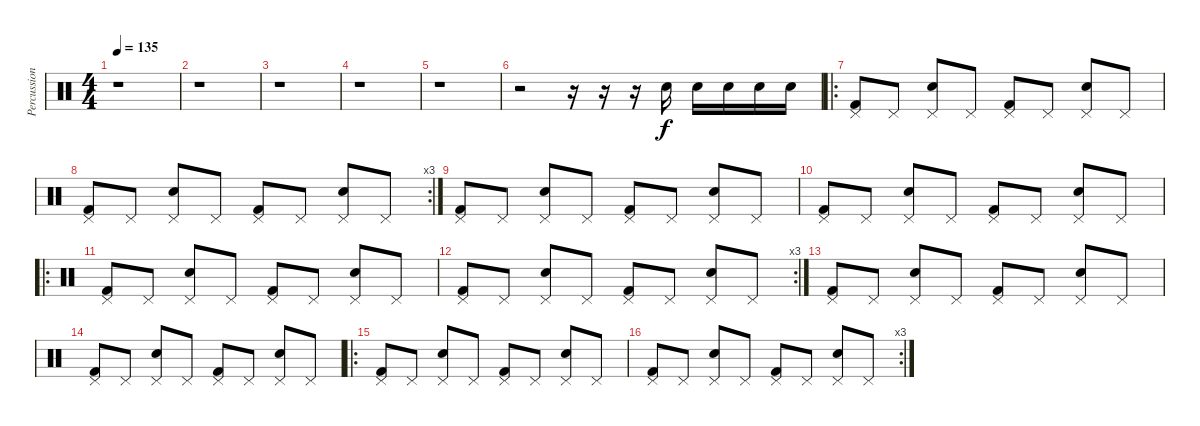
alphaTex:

\track ("Percussions" "Percussion") {instrument percussion}
\staff {score}
\articulation defaults
\ts (4 4)
\tempo 135
\clef neutral
\ks c
r.1{dy f} |
r.1 |
r.1 |
r.1 |
r.1 |
r.2 r.16 r.16 r.16 "Electric Snare (hit)".16 "Electric Snare (hit)".16 "Electric Snare (hit)".16 "Electric Snare (hit)".16 "Electric Snare (hit)".16 |
\ro
("Pedal Hi-Hat (hit)" "Kick (hit) 2").8 "Pedal Hi-Hat (hit)".8 ("Pedal Hi-Hat (hit)" "Electric Snare (hit)").8 "Pedal Hi-Hat (hit)".8 ("Pedal Hi-Hat (hit)" "Kick (hit) 2").8 "Pedal Hi-Hat (hit)".8 ("Pedal Hi-Hat (hit)" "Electric Snare (hit)").8 "Pedal Hi-Hat (hit)".8 |
\rc 3
("Pedal Hi-Hat (hit)" "Kick (hit) 2").8 "Pedal Hi-Hat (hit)".8 ("Pedal Hi-Hat (hit)" "Electric Snare (hit)").8 "Pedal Hi-Hat (hit)".8 ("Pedal Hi-Hat (hit)" "Kick (hit) 2").8 "Pedal Hi-Hat (hit)".8 ("Pedal Hi-Hat (hit)" "Electric Snare (hit)").8 "Pedal Hi-Hat (hit)".8 |
("Pedal Hi-Hat (hit)" "Kick (hit) 2").8 "Pedal Hi-Hat (hit)".8 ("Pedal Hi-Hat (hit)" "Electric Snare (hit)").8 "Pedal Hi-Hat (hit)".8 ("Pedal Hi-Hat (hit)" "Kick (hit) 2").8 "Pedal Hi-Hat (hit)".8 ("Pedal Hi-Hat (hit)" "Electric Snare (hit)").8 "Pedal Hi-Hat (hit)".8 |
("Pedal Hi-Hat (hit)" "Kick (hit) 2").8 "Pedal Hi-Hat (hit)".8 ("Pedal Hi-Hat (hit)" "Electric Snare (hit)").8 "Pedal Hi-Hat (hit)".8 ("Pedal Hi-Hat (hit)" "Kick (hit) 2").8 "Pedal Hi-Hat (hit)".8 ("Pedal Hi-Hat (hit)" "Electric Snare (hit)").8 "Pedal Hi-Hat (hit)".8 |
\ro
("Pedal Hi-Hat (hit)" "Kick (hit) 2").8 "Pedal Hi-Hat (hit)".8 ("Pedal Hi-Hat (hit)" "Electric Snare (hit)").8 "Pedal Hi-Hat (hit)".8 ("Pedal Hi-Hat (hit)" "Kick (hit) 2").8 "Pedal Hi-Hat (hit)".8 ("Pedal Hi-Hat (hit)" "Electric Snare (hit)").8 "Pedal Hi-Hat (hit)".8 |
\rc 3
("Pedal Hi-Hat (hit)" "Kick (hit) 2").8 "Pedal Hi-Hat (hit)".8 ("Pedal Hi-Hat (hit)" "Electric Snare (hit)").8 "Pedal Hi-Hat (hit)".8 ("Pedal Hi-Hat (hit)" "Kick (hit) 2").8 "Pedal Hi-Hat (hit)".8 ("Pedal Hi-Hat (hit)" "Electric Snare (hit)").8 "Pedal Hi-Hat (hit)".8 |
("Pedal Hi-Hat (hit)" "Kick (hit) 2").8 "Pedal Hi-Hat (hit)".8 ("Pedal Hi-Hat (hit)" "Electric Snare (hit)").8 "Pedal Hi-Hat (hit)".8 ("Pedal Hi-Hat (hit)" "Kick (hit) 2").8 "Pedal Hi-Hat (hit)".8 ("Pedal Hi-Hat (hit)" "Electric Snare (hit)").8 "Pedal Hi-Hat (hit)".8 |
("Pedal Hi-Hat (hit)" "Kick (hit) 2").8 "Pedal Hi-Hat (hit)".8 ("Pedal Hi-Hat (hit)" "Electric Snare (hit)").8 "Pedal Hi-Hat (hit)".8 ("Pedal Hi-Hat (hit)" "Kick (hit) 2").8 "Pedal Hi-Hat (hit)".8 ("Pedal Hi-Hat (hit)" "Electric Snare (hit)").8 "Pedal Hi-Hat (hit)".8 |
\ro
("Pedal Hi-Hat (hit)" "Kick (hit) 2").8 "Pedal Hi-Hat (hit)".8 ("Pedal Hi-Hat (hit)" "Electric Snare (hit)").8 "Pedal Hi-Hat (hit)".8 ("Pedal Hi-Hat (hit)" "Kick (hit) 2").8 "Pedal Hi-Hat (hit)".8 ("Pedal Hi-Hat (hit)" "Electric Snare (hit)").8 "Pedal Hi-Hat (hit)".8 |
\rc 3
("Pedal Hi-Hat (hit)" "Kick (hit) 2").8 "Pedal Hi-Hat (hit)".8 ("Pedal Hi-Hat (hit)" "Electric Snare (hit)").8 "Pedal Hi-Hat (hit)".8 ("Pedal Hi-Hat (hit)" "Kick (hit) 2").8 "Pedal Hi-Hat (hit)".8 ("Pedal Hi-Hat (hit)" "Electric Snare (hit)").8 "Pedal Hi-Hat (hit)".8
